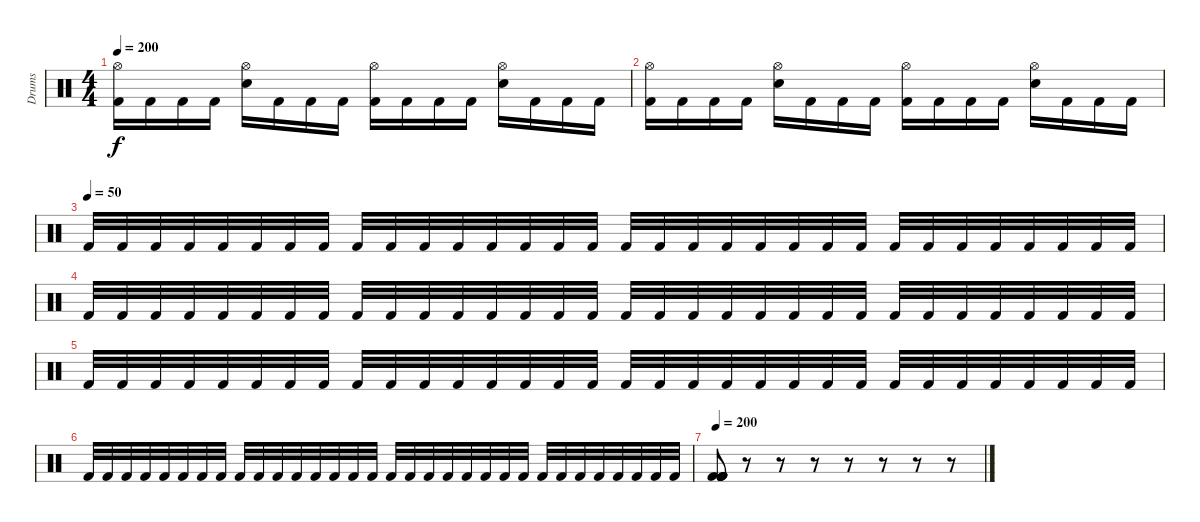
\track ("Drums" "Drums") {instrument percussion}
\staff {score}
\articulation defaults
\ts (4 4)
\tempo 200
\clef neutral
\ks c
("Hi-Hat (open)" "Kick (hit) 2").16{dy f} "Kick (hit) 2".16 "Kick (hit) 2".16 "Kick (hit) 2".16 ("Hi-Hat (open)" "Snare (hit) 2").16 "Kick (hit) 2".16 "Kick (hit) 2".16 "Kick (hit) 2".16 ("Hi-Hat (open)" "Kick (hit) 2").16 "Kick (hit) 2".16 "Kick (hit) 2".16 "Kick (hit) 2".16 ("Hi-Hat (open)" "Snare (hit) 2").16 "Kick (hit) 2".16 "Kick (hit) 2".16 "Kick (hit) 2".16 |
("Hi-Hat (open)" "Kick (hit) 2").16 "Kick (hit) 2".16 "Kick (hit) 2".16 "Kick (hit) 2".16 ("Hi-Hat (open)" "Snare (hit) 2").16 "Kick (hit) 2".16 "Kick (hit) 2".16 "Kick (hit) 2".16 ("Hi-Hat (open)" "Kick (hit) 2").16 "Kick (hit) 2".16 "Kick (hit) 2".16 "Kick (hit) 2".16 ("Hi-Hat (open)" "Snare (hit) 2").16 "Kick (hit) 2".16 "Kick (hit) 2".16 "Kick (hit) 2".16 |
\tempo (50)
"Kick (hit) 2".32 "Kick (hit) 2".32 "Kick (hit) 2".32 "Kick (hit) 2".32 "Kick (hit) 2".32 "Kick (hit) 2".32 "Kick (hit) 2".32 "Kick (hit) 2".32 "Kick (hit) 2".32 "Kick (hit) 2".32 "Kick (hit) 2".32 "Kick (hit) 2".32 "Kick (hit) 2".32 "Kick (hit) 2".32 "Kick (hit) 2".32 "Kick (hit) 2".32 "Kick (hit) 2".32 "Kick (hit) 2".32 "Kick (hit) 2".32 "Kick (hit) 2".32 "Kick (hit) 2".32 "Kick (hit) 2".32 "Kick (hit) 2".32 "Kick (hit) 2".32 "Kick (hit) 2".32 "Kick (hit) 2".32 "Kick (hit) 2".32 "Kick (hit) 2".32 "Kick (hit) 2".32 "Kick (hit) 2".32 "Kick (hit) 2".32 "Kick (hit) 2".32 |
"Kick (hit) 2".32 "Kick (hit) 2".32 "Kick (hit) 2".32 "Kick (hit) 2".32 "Kick (hit) 2".32 "Kick (hit) 2".32 "Kick (hit) 2".32 "Kick (hit) 2".32 "Kick (hit) 2".32 "Kick (hit) 2".32 "Kick (hit) 2".32 "Kick (hit) 2".32 "Kick (hit) 2".32 "Kick (hit) 2".32 "Kick (hit) 2".32 "Kick (hit) 2".32 "Kick (hit) 2".32 "Kick (hit) 2".32 "Kick (hit) 2".32 "Kick (hit) 2".32 "Kick (hit) 2".32 "Kick (hit) 2".32 "Kick (hit) 2".32 "Kick (hit) 2".32 "Kick (hit) 2".32 "Kick (hit) 2".32 "Kick (hit) 2".32 "Kick (hit) 2".32 "Kick (hit) 2".32 "Kick (hit) 2".32 "Kick (hit) 2".32 "Kick (hit) 2".32 |
"Kick (hit) 2".32 "Kick (hit) 2".32 "Kick (hit) 2".32 "Kick (hit) 2".32 "Kick (hit) 2".32 "Kick (hit) 2".32 "Kick (hit) 2".32 "Kick (hit) 2".32 "Kick (hit) 2".32 "Kick (hit) 2".32 "Kick (hit) 2".32 "Kick (hit) 2".32 "Kick (hit) 2".32 "Kick (hit) 2".32 "Kick (hit) 2".32 "Kick (hit) 2".32 "Kick (hit) 2".32 "Kick (hit) 2".32 "Kick (hit) 2".32 "Kick (hit) 2".32 "Kick (hit) 2".32 "Kick (hit) 2".32 "Kick (hit) 2".32 "Kick (hit) 2".32 "Kick (hit) 2".32 "Kick (hit) 2".32 "Kick (hit) 2".32 "Kick (hit) 2".32 "Kick (hit) 2".32 "Kick (hit) 2".32 "Kick (hit) 2".32 "Kick (hit) 2".32 |
"Kick (hit) 2".32 "Kick (hit) 2".32 "Kick (hit) 2".32 "Kick (hit) 2".32 "Kick (hit) 2".32 "Kick (hit) 2".32 "Kick (hit) 2".32 "Kick (hit) 2".32 "Kick (hit) 2".32 "Kick (hit) 2".32 "Kick (hit) 2".32 "Kick (hit) 2".32 "Kick (hit) 2".32 "Kick (hit) 2".32 "Kick (hit) 2".32 "Kick (hit) 2".32 "Kick (hit) 2".32 "Kick (hit) 2".32 "Kick (hit) 2".32 "Kick (hit) 2".32 "Kick (hit) 2".32 "Kick (hit) 2".32 "Kick (hit) 2".32 "Kick (hit) 2".32 "Kick (hit) 2".32 "Kick (hit) 2".32 "Kick (hit) 2".32 "Kick (hit) 2".32 "Kick (hit) 2".32 "Kick (hit) 2".32 "Kick (hit) 2".32 "Kick (hit) 2".32 |
\tempo 200
("Kick (hit) 2" "Kick (hit) 2" "Kick (hit) 2" "Kick (hit) 2" "Kick (hit) 2" "Kick (hit) 2").8 r.8 r.8 r.8 r.8 r.8 r.8 r.8
